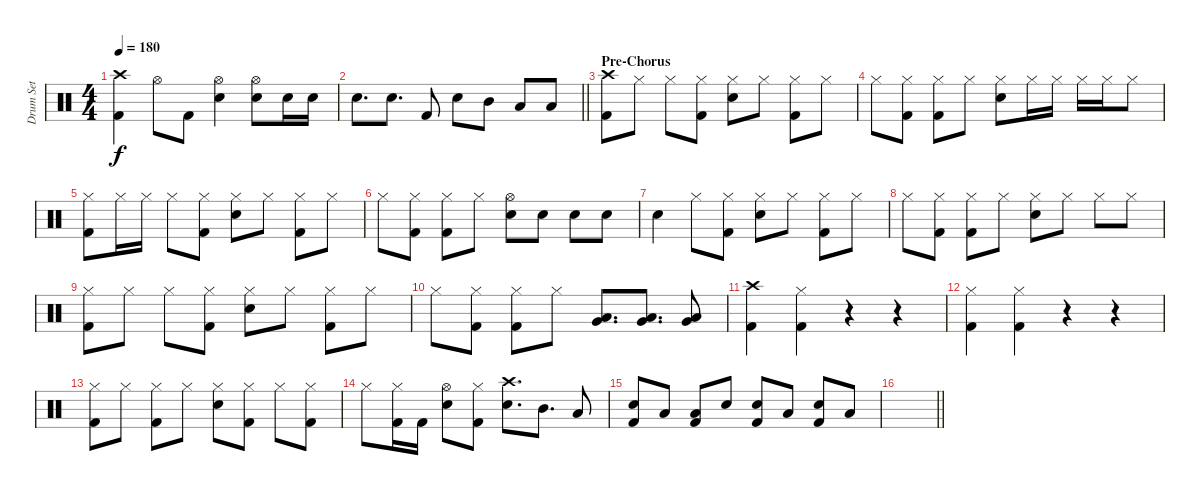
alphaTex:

\track ("Drum Set" "Drum Set") {instrument percussion}
\staff {score}
\articulation defaults
\ts (4 4)
\tempo 180
\clef neutral
\ks c
("Crash high (hit)" "Kick (hit) 2").4{dy f} "Hi-Hat (open)".8 "Kick (hit) 2".8 ("Hi-Hat (open)" "Electric Snare (hit)").4 ("Hi-Hat (open)" "Electric Snare (hit)").8 "Electric Snare (hit)".16 "Electric Snare (hit)".16 |
\barLineRight lightlight "Electric Snare (hit)".8{d} "Electric Snare (hit)".8{d} "Kick (hit) 2".8 "Electric Snare (hit)".8 "Mid Tom (hit)".8 "Low Tom (hit)".8 "Low Floor Tom (hit)".8
|
\section ("" "Pre-Chorus")
("Crash high (hit)" "Kick (hit) 2").8 "Hi-Hat (closed)".8 "Hi-Hat (closed)".8 ("Hi-Hat (closed)" "Kick (hit) 2").8 ("Hi-Hat (closed)" "Electric Snare (hit)").8 "Hi-Hat (closed)".8 ("Hi-Hat (closed)" "Kick (hit) 2").8 "Hi-Hat (closed)".8 |
"Hi-Hat (closed)".8 ("Hi-Hat (closed)" "Kick (hit) 2").8 ("Hi-Hat (closed)" "Kick (hit) 2").8 "Hi-Hat (closed)".8 ("Hi-Hat (closed)" "Electric Snare (hit)").8 "Hi-Hat (closed)".16 "Hi-Hat (closed)".16 "Hi-Hat (closed)".16 "Hi-Hat (closed)".16 "Hi-Hat (closed)".8 |
("Hi-Hat (closed)" "Kick (hit) 2").8 "Hi-Hat (closed)".16 "Hi-Hat (closed)".16 "Hi-Hat (closed)".8 ("Hi-Hat (closed)" "Kick (hit) 2").8 ("Hi-Hat (closed)" "Electric Snare (hit)").8 "Hi-Hat (closed)".8 ("Hi-Hat (closed)" "Kick (hit) 2").8 "Hi-Hat (closed)".8 |
"Hi-Hat (closed)".8 ("Hi-Hat (closed)" "Kick (hit) 2").8 ("Hi-Hat (closed)" "Kick (hit) 2").8 "Hi-Hat (closed)".8 ("Hi-Hat (open)" "Electric Snare (hit)").8 "Electric Snare (hit)".8 "Electric Snare (hit)".8 "Electric Snare (hit)".8 |
"Electric Snare (hit)".4 "Hi-Hat (closed)".8 ("Hi-Hat (closed)" "Kick (hit) 2").8 ("Hi-Hat (closed)" "Electric Snare (hit)").8 "Hi-Hat (closed)".8 ("Hi-Hat (closed)" "Kick (hit) 2").8 "Hi-Hat (closed)".8 |
"Hi-Hat (closed)".8 ("Hi-Hat (closed)" "Kick (hit) 2").8 ("Hi-Hat (closed)" "Kick (hit) 2").8 "Hi-Hat (closed)".8 ("Hi-Hat (closed)" "Electric Snare (hit)").8 "Hi-Hat (closed)".8 "Hi-Hat (closed)".8 "Hi-Hat (closed)".8 |
("Hi-Hat (closed)" "Kick (hit) 2").8 "Hi-Hat (closed)".8 "Hi-Hat (closed)".8 ("Hi-Hat (closed)" "Kick (hit) 2").8 ("Hi-Hat (closed)" "Electric Snare (hit)").8 "Hi-Hat (closed)".8 ("Hi-Hat (closed)" "Kick (hit) 2").8 "Hi-Hat (closed)".8 |
"Hi-Hat (closed)".8 ("Hi-Hat (closed)" "Kick (hit) 2").8 ("Hi-Hat (closed)" "Kick (hit) 2").8 "Hi-Hat (closed)".8 ("Low Floor Tom (hit)" "Very Low Tom (hit)").8{d} ("Low Floor Tom (hit)" "Very Low Tom (hit)").8{d} ("Low Floor Tom (hit)" "Very Low Tom (hit)").8 |
("Crash high (hit)" "Kick (hit) 2").4 ("Hi-Hat (closed)" "Kick (hit) 2").4 r.4 r.4 |
("Hi-Hat (closed)" "Kick (hit) 2").4 ("Hi-Hat (closed)" "Kick (hit) 2").4 r.4 r.4 |
("Hi-Hat (closed)" "Kick (hit) 2").8 "Hi-Hat (closed)".8 ("Hi-Hat (closed)" "Kick (hit) 2").8 "Hi-Hat (closed)".8 ("Hi-Hat (closed)" "Electric Snare (hit)").8 ("Hi-Hat (closed)" "Kick (hit) 2").8 "Hi-Hat (closed)".8 ("Hi-Hat (closed)" "Kick (hit) 2").8 |
"Hi-Hat (closed)".8 ("Hi-Hat (closed)" "Kick (hit) 2").16 "Kick (hit) 2".16 ("Hi-Hat (open)" "Electric Snare (hit)").8 ("Hi-Hat (closed)" "Kick (hit) 2").8 ("Electric Snare (hit)" "Crash high (hit)").8{d} "Mid Tom (hit)".8{d} "Low Tom (hit)".8 |
("Electric Snare (hit)" "Kick (hit) 2").8 "Low Floor Tom (hit)".8 ("Low Floor Tom (hit)" "Kick (hit) 2").8 "Electric Snare (hit)".8 ("Electric Snare (hit)" "Kick (hit) 2").8 "Low Floor Tom (hit)".8 ("Electric Snare (hit)" "Kick (hit) 2").8 "Low Floor Tom (hit)".8 |
\barLineRight lightlight
